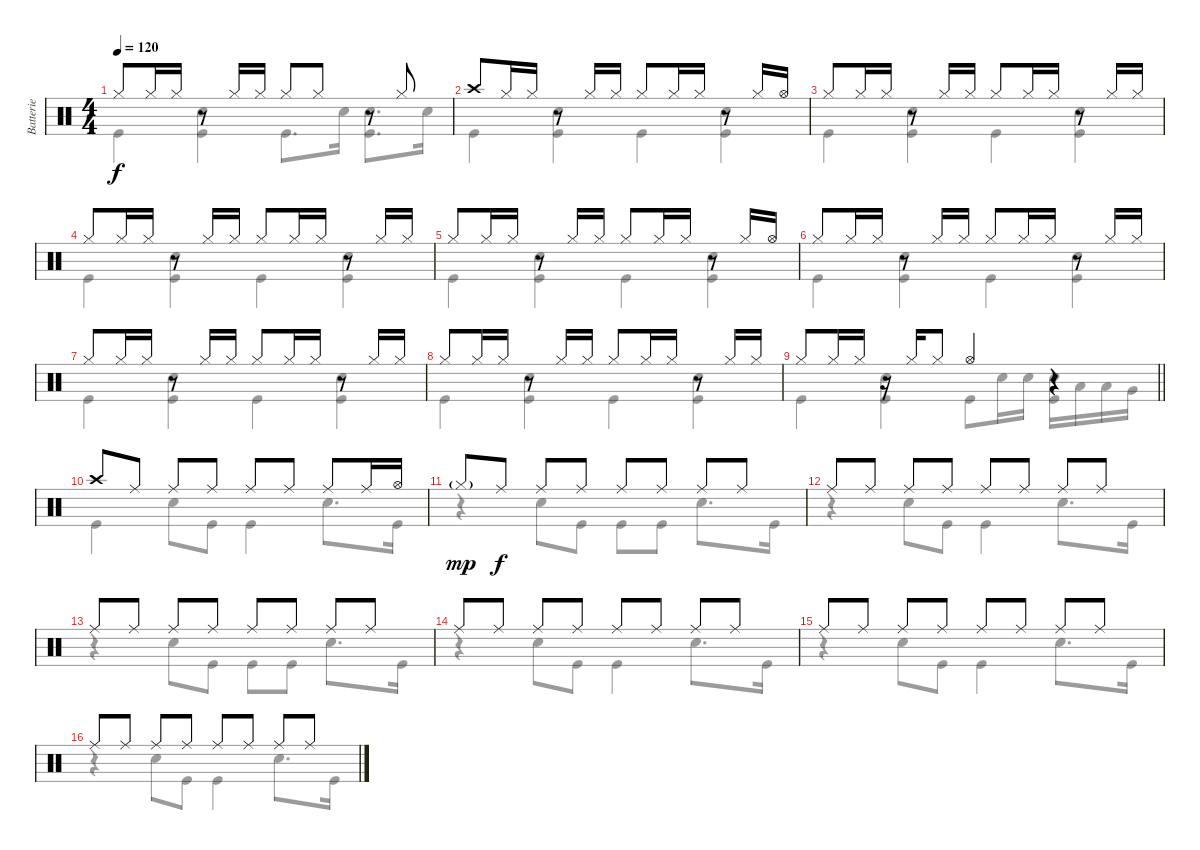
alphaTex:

\track ("Batterie" "Batterie") {instrument percussion}
\staff {score}
\articulation defaults
\voice
\ts (4 4)
\tempo 120
\clef neutral
\ks c "Hi-Hat (closed)".8{dy f} "Hi-Hat (closed)".16 "Hi-Hat (closed)".16
r.8 "Hi-Hat (closed)".16 "Hi-Hat (closed)".16 "Hi-Hat (closed)".8 "Hi-Hat (closed)".8 r.8 "Hi-Hat (closed)".8 |
"Crash high (hit)".8 "Hi-Hat (closed)".16 "Hi-Hat (closed)".16 r.8 "Hi-Hat (closed)".16 "Hi-Hat (closed)".16 "Hi-Hat (closed)".8 "Hi-Hat (closed)".16 "Hi-Hat (closed)".16 r.8 "Hi-Hat (closed)".16 "Hi-Hat (open)".16 |
"Hi-Hat (closed)".8 "Hi-Hat (closed)".16 "Hi-Hat (closed)".16 r.8 "Hi-Hat (closed)".16 "Hi-Hat (closed)".16 "Hi-Hat (closed)".8 "Hi-Hat (closed)".16 "Hi-Hat (closed)".16 r.8 "Hi-Hat (closed)".16 "Hi-Hat (closed)".16 |
"Hi-Hat (closed)".8 "Hi-Hat (closed)".16 "Hi-Hat (closed)".16 r.8 "Hi-Hat (closed)".16 "Hi-Hat (closed)".16 "Hi-Hat (closed)".8 "Hi-Hat (closed)".16 "Hi-Hat (closed)".16 r.8 "Hi-Hat (closed)".16 "Hi-Hat (closed)".16 |
"Hi-Hat (closed)".8 "Hi-Hat (closed)".16 "Hi-Hat (closed)".16 r.8 "Hi-Hat (closed)".16 "Hi-Hat (closed)".16 "Hi-Hat (closed)".8 "Hi-Hat (closed)".16 "Hi-Hat (closed)".16 r.8 "Hi-Hat (closed)".16 "Hi-Hat (open)".16 |
"Hi-Hat (closed)".8 "Hi-Hat (closed)".16 "Hi-Hat (closed)".16 r.8 "Hi-Hat (closed)".16 "Hi-Hat (closed)".16 "Hi-Hat (closed)".8 "Hi-Hat (closed)".16 "Hi-Hat (closed)".16 r.8 "Hi-Hat (closed)".16 "Hi-Hat (closed)".16 |
"Hi-Hat (closed)".8 "Hi-Hat (closed)".16 "Hi-Hat (closed)".16 r.8 "Hi-Hat (closed)".16 "Hi-Hat (closed)".16 "Hi-Hat (closed)".8 "Hi-Hat (closed)".16 "Hi-Hat (closed)".16 r.8 "Hi-Hat (closed)".16 "Hi-Hat (closed)".16 |
"Hi-Hat (closed)".8 "Hi-Hat (closed)".16 "Hi-Hat (closed)".16 r.8 "Hi-Hat (closed)".16 "Hi-Hat (closed)".16 "Hi-Hat (closed)".8 "Hi-Hat (closed)".16 "Hi-Hat (closed)".16 r.8 "Hi-Hat (closed)".16 "Hi-Hat (closed)".16 |
\barLineRight lightlight "Hi-Hat (closed)".8 "Hi-Hat (closed)".16 "Hi-Hat (closed)".16
r.16 "Hi-Hat (closed)".16 "Hi-Hat (closed)".8 "Hi-Hat (open)".4 r.4 |
"Crash high (hit)".8 "Ride (middle)".8 "Ride (middle)".8 "Ride (middle)".8 "Ride (middle)".8 "Ride (middle)".8 "Ride (middle)".8 "Ride (middle)".16 "Hi-Hat (open)".16 |
"Hi-Hat (closed)"{g}.8{dy mp} "Ride (middle)".8{dy f} "Ride (middle)".8 "Ride (middle)".8 "Ride (middle)".8 "Ride (middle)".8 "Ride (middle)".8 "Ride (middle)".8 |
"Ride (middle)".8 "Ride (middle)".8 "Ride (middle)".8 "Ride (middle)".8 "Ride (middle)".8 "Ride (middle)".8 "Ride (middle)".8 "Ride (middle)".8 |
"Ride (middle)".8 "Ride (middle)".8 "Ride (middle)".8 "Ride (middle)".8 "Ride (middle)".8 "Ride (middle)".8 "Ride (middle)".8 "Ride (middle)".8 |
"Ride (middle)".8 "Ride (middle)".8 "Ride (middle)".8 "Ride (middle)".8 "Ride (middle)".8 "Ride (middle)".8 "Ride (middle)".8 "Ride (middle)".8 |
"Ride (middle)".8 "Ride (middle)".8 "Ride (middle)".8 "Ride (middle)".8 "Ride (middle)".8 "Ride (middle)".8 "Ride (middle)".8 "Ride (middle)".8 |
"Ride (middle)".8 "Ride (middle)".8 "Ride (middle)".8 "Ride (middle)".8 "Ride (middle)".8 "Ride (middle)".8 "Ride (middle)".8 "Ride (middle)".8
\voice
\clef neutral
\ottava regular
\simile none
\ks c "Kick (hit)".4{dy f}
("Snare (hit) 2" "Kick (hit)").4 "Kick (hit)".8{d} "Snare (hit) 2".16 ("Snare (hit) 2" "Kick (hit)").8{d} "Snare (hit) 2".16 |
"Kick (hit)".4 ("Snare (hit) 2" "Kick (hit)").4 "Kick (hit)".4 ("Snare (hit) 2" "Kick (hit)").4 |
"Kick (hit)".4 ("Snare (hit) 2" "Kick (hit)").4 "Kick (hit)".4 ("Snare (hit) 2" "Kick (hit)").4 |
"Kick (hit)".4 ("Snare (hit) 2" "Kick (hit)").4 "Kick (hit)".4 ("Snare (hit) 2" "Kick (hit)").4 |
"Kick (hit)".4 ("Snare (hit) 2" "Kick (hit)").4 "Kick (hit)".4 ("Snare (hit) 2" "Kick (hit)").4 |
"Kick (hit)".4 ("Snare (hit) 2" "Kick (hit)").4 "Kick (hit)".4 ("Snare (hit) 2" "Kick (hit)").4 |
"Kick (hit)".4 ("Snare (hit) 2" "Kick (hit)").4 "Kick (hit)".4 ("Snare (hit) 2" "Kick (hit)").4 |
"Kick (hit)".4 ("Snare (hit) 2" "Kick (hit)").4 "Kick (hit)".4 ("Snare (hit) 2" "Kick (hit)").4 |
\barLineRight lightlight "Kick (hit)".4
("Snare (hit) 2" "Kick (hit)").4 "Kick (hit)".8 "Snare (hit) 2".16 "Snare (hit) 2".16 ("Snare (hit) 2" "Kick (hit)").16 "Low Tom (hit)".16 "Low Tom (hit)".16 "Very Low Tom (hit)".16 |
"Kick (hit)".4 "Snare (hit) 2".8 "Kick (hit)".8 "Kick (hit)".4 "Snare (hit) 2".8{d} "Kick (hit)".16 |
r.4 "Snare (hit) 2".8 "Kick (hit)".8 "Kick (hit)".8 "Kick (hit)".8 "Snare (hit) 2".8{d} "Kick (hit)".16 |
r.4 "Snare (hit) 2".8 "Kick (hit)".8 "Kick (hit)".4 "Snare (hit) 2".8{d} "Kick (hit)".16 |
r.4 "Snare (hit) 2".8 "Kick (hit)".8 "Kick (hit)".8 "Kick (hit)".8 "Snare (hit) 2".8{d} "Kick (hit)".16 |
r.4 "Snare (hit) 2".8 "Kick (hit)".8 "Kick (hit)".4 "Snare (hit) 2".8{d} "Kick (hit)".16 |
r.4 "Snare (hit) 2".8 "Kick (hit)".8 "Kick (hit)".4 "Snare (hit) 2".8{d} "Kick (hit)".16 |
r.4 "Snare (hit) 2".8 "Kick (hit)".8 "Kick (hit)".4 "Snare (hit) 2".8{d} "Kick (hit)".16
